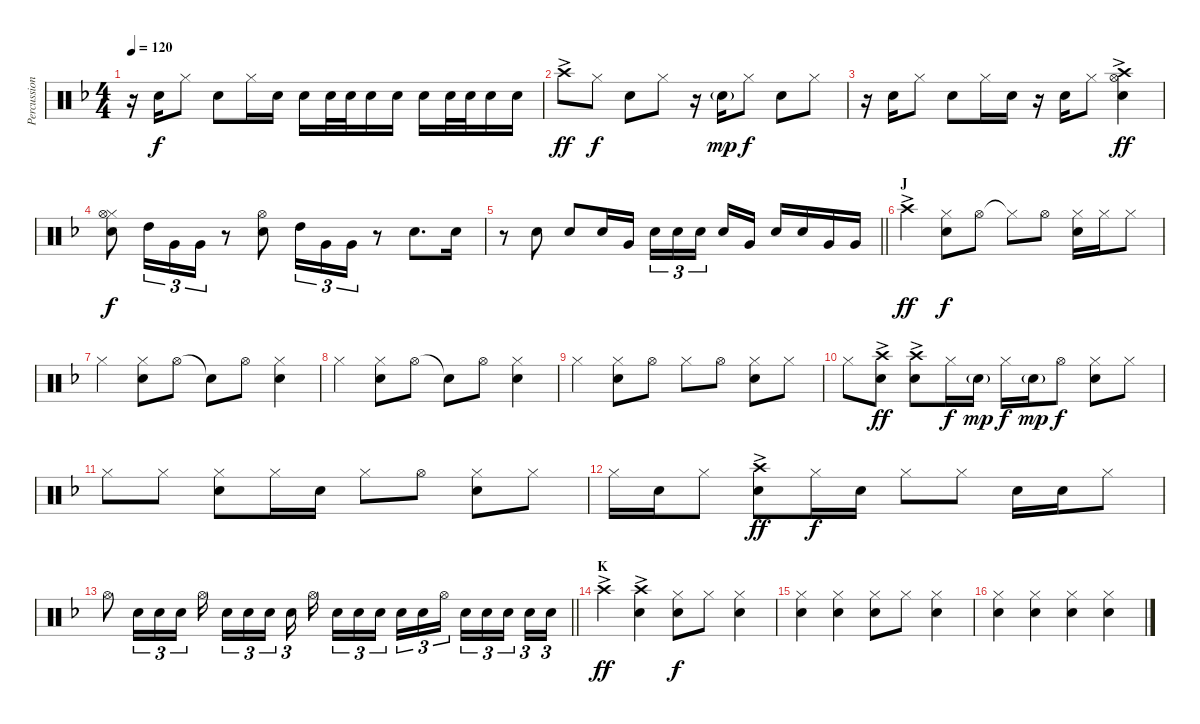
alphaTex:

\track ("Percussion hand" "Percussion") {instrument percussion}
\staff {score}
\articulation defaults
\ts (4 4)
\tempo 120
\clef neutral
\ks f
r.16{dy f} "Snare (hit) 2".16 "Hi-Hat (closed)".8 "Snare (hit) 2".8 "Hi-Hat (closed)".16 "Snare (hit) 2".16 "Snare (hit) 2".16 "Snare (hit) 2".32 "Snare (hit) 2".32 "Snare (hit) 2".16 "Snare (hit) 2".16 "Snare (hit) 2".16 "Snare (hit) 2".32 "Snare (hit) 2".32 "Snare (hit) 2".16 "Snare (hit) 2".16 |
"Crash high (hit)"{ac}.8{dy ff} "Hi-Hat (closed)".8{dy f} "Snare (hit) 2".8 "Hi-Hat (closed)".8 r.16 "Snare (hit) 2"{g}.16{dy mp} "Hi-Hat (closed)".8{dy f} "Snare (hit) 2".8 "Hi-Hat (closed)".8 |
r.16 "Snare (hit) 2".16 "Hi-Hat (closed)".8 "Snare (hit) 2".8 "Hi-Hat (closed)".16 "Snare (hit) 2".16 r.16 "Snare (hit) 2".16 "Hi-Hat (closed)".8 ("Hi-Hat (open)" "Snare (hit) 2"{ac} "Crash high (hit)").4{dy ff} |
("Hi-Hat (closed)" "Snare (hit) 2" "Hi-Hat (open)").8{dy f} "High Tom (hit)".16{tu (3 2)} "Very Low Tom (hit)".16{tu (3 2)} "Very Low Tom (hit)".16{tu (3 2)} r.8 ("Snare (hit) 2" "Hi-Hat (open)").8 "High Tom (hit)".16{tu (3 2)} "Very Low Tom (hit)".16{tu (3 2)} "Very Low Tom (hit)".16{tu (3 2)} r.8 "Snare (hit) 2".8{d} "Snare (hit) 2".16 |
\barLineRight lightlight
r.8 "Snare (hit) 2".8 "Snare (hit) 2".8 "Snare (hit) 2".16 "Very Low Tom (hit)".16 "Snare (hit) 2".16{tu (3 2)} "Snare (hit) 2".16{tu (3 2)} "Snare (hit) 2".16{tu (3 2) beam splitsecondary} "Snare (hit) 2".16 "Very Low Tom (hit)".16 "Snare (hit) 2".16 "Snare (hit) 2".16 "Very Low Tom (hit)".16 "Very Low Tom (hit)".16 |
\section ("" "J")
"Crash high (hit)"{ac}.4{dy ff} ("Hi-Hat (closed)" "Snare (hit) 2").8{dy f} "Hi-Hat (open)".8 "Hi-Hat (closed)"{t}.8 "Hi-Hat (open)".8 ("Hi-Hat (closed)" "Snare (hit) 2").16 "Hi-Hat (closed)".16 "Hi-Hat (closed)".8 |
"Hi-Hat (closed)".4 ("Hi-Hat (closed)" "Snare (hit) 2").8 "Hi-Hat (open)".8 "Snare (hit)"{t}.8 "Hi-Hat (open)".8 ("Hi-Hat (closed)" "Snare (hit) 2").4 |
"Hi-Hat (closed)".4 ("Hi-Hat (closed)" "Snare (hit) 2").8 "Hi-Hat (open)".8 "Snare (hit)"{t}.8 "Hi-Hat (open)".8 ("Hi-Hat (closed)" "Snare (hit) 2").4 |
"Hi-Hat (closed)".4 ("Hi-Hat (closed)" "Snare (hit) 2").8 "Hi-Hat (open)".8 "Hi-Hat (closed)".8 "Hi-Hat (open)".8 ("Hi-Hat (closed)" "Snare (hit) 2").8 "Hi-Hat (closed)".8 |
"Hi-Hat (closed)".8 ("Crash high (hit)"{ac} "Snare (hit) 2").8{dy ff} ("Crash high (hit)" "Snare (hit) 2"{ac}).8 "Hi-Hat (closed)".16{dy f} "Snare (hit) 2"{g}.16{dy mp} "Hi-Hat (closed)".16{dy f} "Snare (hit) 2"{g}.16{dy mp} "Hi-Hat (open)".8{dy f} ("Hi-Hat (closed)" "Snare (hit) 2").8 "Hi-Hat (closed)".8 |
"Hi-Hat (closed)".8 "Hi-Hat (closed)".8 ("Hi-Hat (closed)" "Snare (hit) 2").8 "Hi-Hat (closed)".16 "Snare (hit) 2".16 "Hi-Hat (closed)".8 "Hi-Hat (open)".8 ("Hi-Hat (closed)" "Snare (hit) 2").8 "Hi-Hat (closed)".8 |
"Hi-Hat (closed)".16 "Snare (hit) 2".16 "Hi-Hat (closed)".8 ("Crash high (hit)"{ac} "Snare (hit) 2").8{dy ff} "Hi-Hat (closed)".16{dy f} "Snare (hit) 2".16 "Hi-Hat (closed)".8 "Hi-Hat (closed)".8 "Snare (hit) 2".16 "Snare (hit) 2".16 "Hi-Hat (closed)".8 |
\barLineRight lightlight "Hi-Hat (open)".8 "Snare (hit) 2".16{tu (3 2)} "Snare (hit) 2".16{tu (3 2)} "Snare (hit) 2".16{tu (3 2)} "Hi-Hat (open)".16{beam splitsecondary} "Snare (hit) 2".16{tu (3 2)} "Snare (hit) 2".16{tu (3 2)} "Snare (hit) 2".16{tu (3 2) beam splitsecondary} "Snare (hit) 2".16{tu (3 2)} "Hi-Hat (open)".16 "Snare (hit) 2".16{tu (3 2)} "Snare (hit) 2".16{tu (3 2)} "Snare (hit) 2".16{tu (3 2) beam splitsecondary} "Snare (hit) 2".16{tu (3 2)} "Snare (hit) 2".16{tu (3 2)} "Hi-Hat (open)".16{tu (3 2) beam splitsecondary} "Snare (hit) 2".16{tu (3 2)} "Snare (hit) 2".16{tu (3 2)} "Snare (hit) 2".16{tu (3 2) beam splitsecondary} "Snare (hit) 2".16{tu (3 2)} "Snare (hit) 2".16{tu (3 2)}
|
\section ("" "K")
"Crash high (hit)"{ac}.4{dy ff} ("Crash high (hit)" "Snare (hit) 2"{ac}).4 ("Hi-Hat (closed)" "Snare (hit) 2").8{dy f} "Hi-Hat (closed)".8 ("Hi-Hat (closed)" "Snare (hit) 2").4 |
("Hi-Hat (closed)" "Snare (hit) 2").4 ("Hi-Hat (closed)" "Snare (hit) 2").4 ("Hi-Hat (closed)" "Snare (hit) 2").8 "Hi-Hat (closed)".8 ("Hi-Hat (closed)" "Snare (hit) 2").4 |
("Hi-Hat (closed)" "Snare (hit) 2").4 ("Hi-Hat (closed)" "Snare (hit) 2").4 ("Hi-Hat (closed)" "Snare (hit) 2").4 ("Hi-Hat (closed)" "Snare (hit) 2").4
